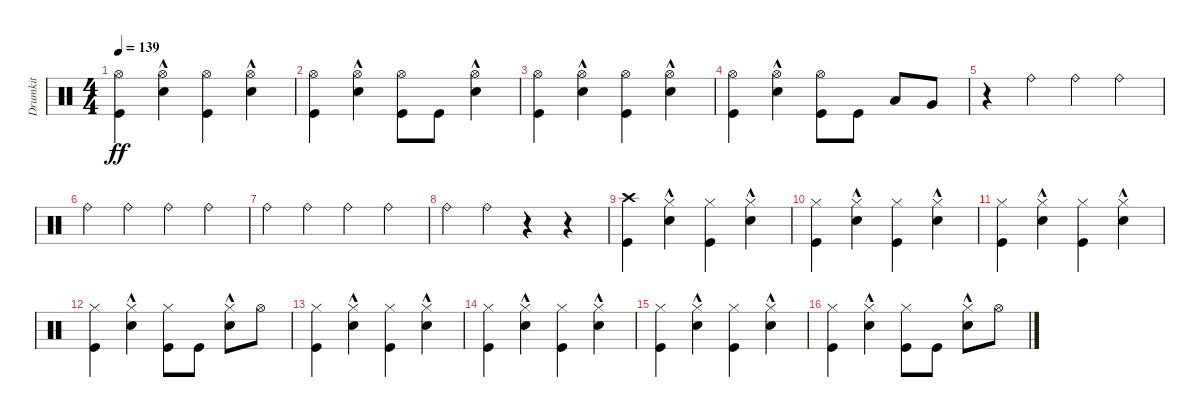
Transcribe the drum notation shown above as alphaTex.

\track ("Drumkit" "Drumkit") {instrument percussion}
\staff {score}
\articulation defaults
\ts (4 4)
\tempo 139
\clef neutral
\ks c
("Kick (hit)" "Hi-Hat (open)").4{dy ff} ("Snare (hit) 2"{hac} "Hi-Hat (open)").4 ("Kick (hit)" "Hi-Hat (open)").4 ("Snare (hit) 2"{hac} "Hi-Hat (open)").4 |
("Hi-Hat (open)" "Kick (hit)").4 ("Hi-Hat (open)" "Snare (hit) 2"{hac}).4 ("Hi-Hat (open)" "Kick (hit)").8 "Kick (hit)".8 ("Hi-Hat (open)" "Snare (hit) 2"{hac}).4 |
("Hi-Hat (open)" "Kick (hit)").4 ("Hi-Hat (open)" "Snare (hit) 2"{hac}).4 ("Hi-Hat (open)" "Kick (hit)").4 ("Hi-Hat (open)" "Snare (hit) 2"{hac}).4 |
("Hi-Hat (open)" "Kick (hit)").4 ("Snare (hit) 2"{hac} "Hi-Hat (open)").4 ("Hi-Hat (open)" "Kick (hit)").8 "Kick (hit)".8 "Low Tom (hit)".8 "Very Low Tom (hit)".8 |
r.4 "Ride (bell)".4 "Ride (bell)".4 "Ride (bell)".4 |
"Ride (bell)".4 "Ride (bell)".4 "Ride (bell)".4 "Ride (bell)".4 |
"Ride (bell)".4 "Ride (bell)".4 "Ride (bell)".4 "Ride (bell)".4 |
"Ride (bell)".4 "Ride (bell)".4 r.4 r.4 |
("Kick (hit)" "Crash high (hit)").4 ("Snare (hit) 2"{hac} "Hi-Hat (closed)").4 ("Kick (hit)" "Hi-Hat (closed)").4 ("Snare (hit) 2"{hac} "Hi-Hat (closed)").4 |
("Hi-Hat (closed)" "Kick (hit)").4 ("Hi-Hat (closed)" "Snare (hit) 2"{hac}).4 ("Hi-Hat (closed)" "Kick (hit)").4 ("Hi-Hat (closed)" "Snare (hit) 2"{hac}).4 |
("Hi-Hat (closed)" "Kick (hit)").4 ("Hi-Hat (closed)" "Snare (hit) 2"{hac}).4 ("Hi-Hat (closed)" "Kick (hit)").4 ("Hi-Hat (closed)" "Snare (hit) 2"{hac}).4 |
("Hi-Hat (closed)" "Kick (hit)").4 ("Snare (hit) 2"{hac} "Hi-Hat (closed)").4 ("Hi-Hat (closed)" "Kick (hit)").8 "Kick (hit)".8 ("Snare (hit) 2"{hac} "Hi-Hat (closed)").8 "Hi-Hat (open)".8 |
("Kick (hit)" "Hi-Hat (closed)").4 ("Snare (hit) 2"{hac} "Hi-Hat (closed)").4 ("Kick (hit)" "Hi-Hat (closed)").4 ("Snare (hit) 2"{hac} "Hi-Hat (closed)").4 |
("Hi-Hat (closed)" "Kick (hit)").4 ("Hi-Hat (closed)" "Snare (hit) 2"{hac}).4 ("Hi-Hat (closed)" "Kick (hit)").4 ("Hi-Hat (closed)" "Snare (hit) 2"{hac}).4 |
("Hi-Hat (closed)" "Kick (hit)").4 ("Hi-Hat (closed)" "Snare (hit) 2"{hac}).4 ("Hi-Hat (closed)" "Kick (hit)").4 ("Hi-Hat (closed)" "Snare (hit) 2"{hac}).4 |
("Hi-Hat (closed)" "Kick (hit)").4 ("Snare (hit) 2"{hac} "Hi-Hat (closed)").4 ("Hi-Hat (closed)" "Kick (hit)").8 "Kick (hit)".8 ("Snare (hit) 2"{hac} "Hi-Hat (closed)").8 "Hi-Hat (open)".8
